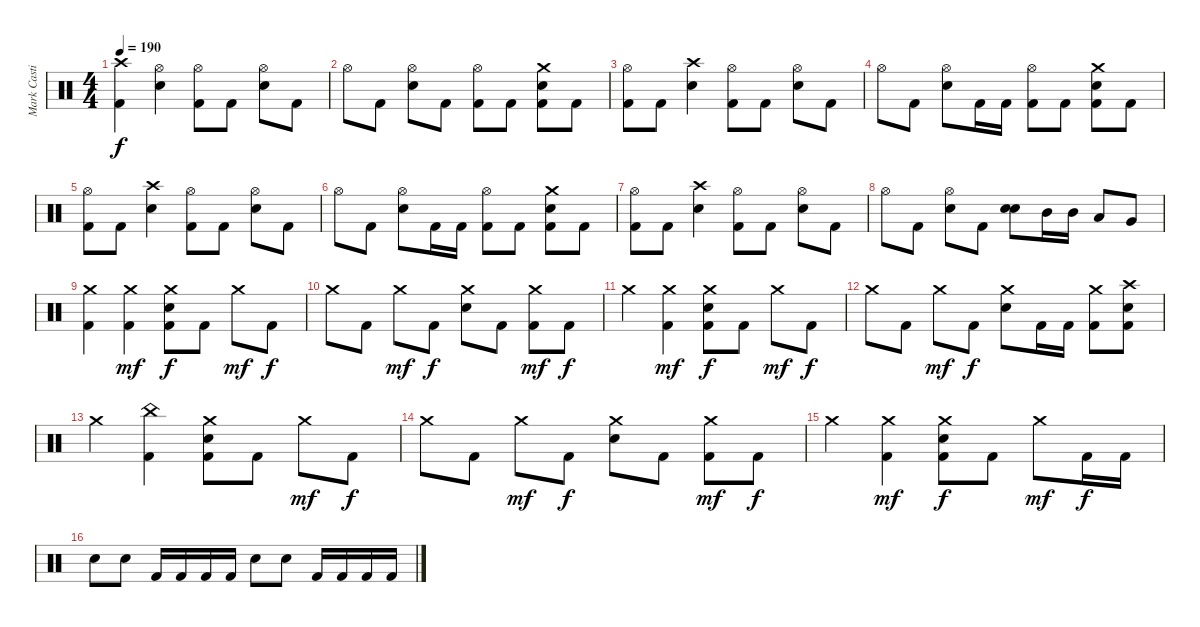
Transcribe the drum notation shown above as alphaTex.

\track ("Mark Castillo" "Mark Casti") {instrument percussion}
\staff {score}
\articulation defaults
\ts (4 4)
\tempo 190
\clef neutral
\ks c
("Crash high (hit)" "Kick (hit) 2").4{dy f} ("Hi-Hat (open)" "Electric Snare (hit)").4 ("Hi-Hat (open)" "Kick (hit) 2").8 "Kick (hit) 2".8 ("Hi-Hat (open)" "Electric Snare (hit)").8 "Kick (hit) 2".8 |
"Hi-Hat (open)".8 "Kick (hit) 2".8 ("Hi-Hat (open)" "Electric Snare (hit)").8 "Kick (hit) 2".8 ("Hi-Hat (open)" "Kick (hit) 2").8 "Kick (hit) 2".8 ("Crash medium (hit)" "Electric Snare (hit)" "Kick (hit) 2").8 "Kick (hit) 2".8 |
("Hi-Hat (open)" "Kick (hit) 2").8 "Kick (hit) 2".8 ("Crash high (hit)" "Electric Snare (hit)").4 ("Hi-Hat (open)" "Kick (hit) 2").8 "Kick (hit) 2".8 ("Hi-Hat (open)" "Electric Snare (hit)").8 "Kick (hit) 2".8 |
"Hi-Hat (open)".8 "Kick (hit) 2".8 ("Hi-Hat (open)" "Electric Snare (hit)").8 "Kick (hit) 2".16 "Kick (hit) 2".16 ("Hi-Hat (open)" "Kick (hit) 2").8 "Kick (hit) 2".8 ("Crash medium (hit)" "Electric Snare (hit)" "Kick (hit) 2").8 "Kick (hit) 2".8 |
("Hi-Hat (open)" "Kick (hit) 2").8 "Kick (hit) 2".8 ("Crash high (hit)" "Electric Snare (hit)").4 ("Hi-Hat (open)" "Kick (hit) 2").8 "Kick (hit) 2".8 ("Hi-Hat (open)" "Electric Snare (hit)").8 "Kick (hit) 2".8 |
"Hi-Hat (open)".8 "Kick (hit) 2".8 ("Hi-Hat (open)" "Electric Snare (hit)").8 "Kick (hit) 2".16 "Kick (hit) 2".16 ("Hi-Hat (open)" "Kick (hit) 2").8 "Kick (hit) 2".8 ("Crash medium (hit)" "Electric Snare (hit)" "Kick (hit) 2").8 "Kick (hit) 2".8 |
("Hi-Hat (open)" "Kick (hit) 2").8 "Kick (hit) 2".8 ("Crash high (hit)" "Electric Snare (hit)").4 ("Hi-Hat (open)" "Kick (hit) 2").8 "Kick (hit) 2".8 ("Hi-Hat (open)" "Electric Snare (hit)").8 "Kick (hit) 2".8 |
"Hi-Hat (open)".8 "Kick (hit) 2".8 ("Hi-Hat (open)" "Electric Snare (hit)").8 "Kick (hit) 2".8 ("Electric Snare (hit)" "Electric Snare (hit)").8{bd 120} "Mid Tom (hit)".16 "Mid Tom (hit)".16 "Low Tom (hit)".8 "Very Low Tom (hit)".8 |
("Crash medium (hit)" "Kick (hit) 2").4 ("Crash medium (hit)" "Kick (hit) 2").4{dy mf} ("Crash medium (hit)" "Electric Snare (hit)" "Kick (hit) 2").8{dy f} "Kick (hit) 2".8 "Crash medium (hit)".8{dy mf} "Kick (hit) 2".8{dy f} |
"Crash medium (hit)".8 "Kick (hit) 2".8 "Crash medium (hit)".8{dy mf} "Kick (hit) 2".8{dy f} ("Crash medium (hit)" "Electric Snare (hit)").8 "Kick (hit) 2".8 ("Crash medium (hit)" "Kick (hit) 2").8{dy mf} "Kick (hit) 2".8{dy f} |
"Crash medium (hit)".4 ("Crash medium (hit)" "Kick (hit) 2").4{dy mf} ("Crash medium (hit)" "Electric Snare (hit)" "Kick (hit) 2").8{dy f} "Kick (hit) 2".8 "Crash medium (hit)".8{dy mf} "Kick (hit) 2".8{dy f} |
"Crash medium (hit)".8 "Kick (hit) 2".8 "Crash medium (hit)".8{dy mf} "Kick (hit) 2".8{dy f} ("Crash medium (hit)" "Electric Snare (hit)").8 "Kick (hit) 2".16 "Kick (hit) 2".16 ("Crash medium (hit)" "Kick (hit) 2").8 ("Crash high (hit)" "Electric Snare (hit)" "Kick (hit) 2").8 |
"Crash medium (hit)".4 ("China (hit)" "Kick (hit) 2").4 ("Crash medium (hit)" "Electric Snare (hit)" "Kick (hit) 2").8 "Kick (hit) 2".8 "Crash medium (hit)".8{dy mf} "Kick (hit) 2".8{dy f} |
"Crash medium (hit)".8 "Kick (hit) 2".8 "Crash medium (hit)".8{dy mf} "Kick (hit) 2".8{dy f} ("Crash medium (hit)" "Electric Snare (hit)").8 "Kick (hit) 2".8 ("Crash medium (hit)" "Kick (hit) 2").8{dy mf} "Kick (hit) 2".8{dy f} |
"Crash medium (hit)".4 ("Crash medium (hit)" "Kick (hit) 2").4{dy mf} ("Crash medium (hit)" "Electric Snare (hit)" "Kick (hit) 2").8{dy f} "Kick (hit) 2".8 "Crash medium (hit)".8{dy mf} "Kick (hit) 2".16{dy f} "Kick (hit) 2".16 |
"Electric Snare (hit)".8 "Electric Snare (hit)".8 "Kick (hit) 2".16 "Kick (hit) 2".16 "Kick (hit) 2".16 "Kick (hit) 2".16 "Electric Snare (hit)".8 "Electric Snare (hit)".8 "Kick (hit) 2".16 "Kick (hit) 2".16 "Kick (hit) 2".16 "Kick (hit) 2".16
